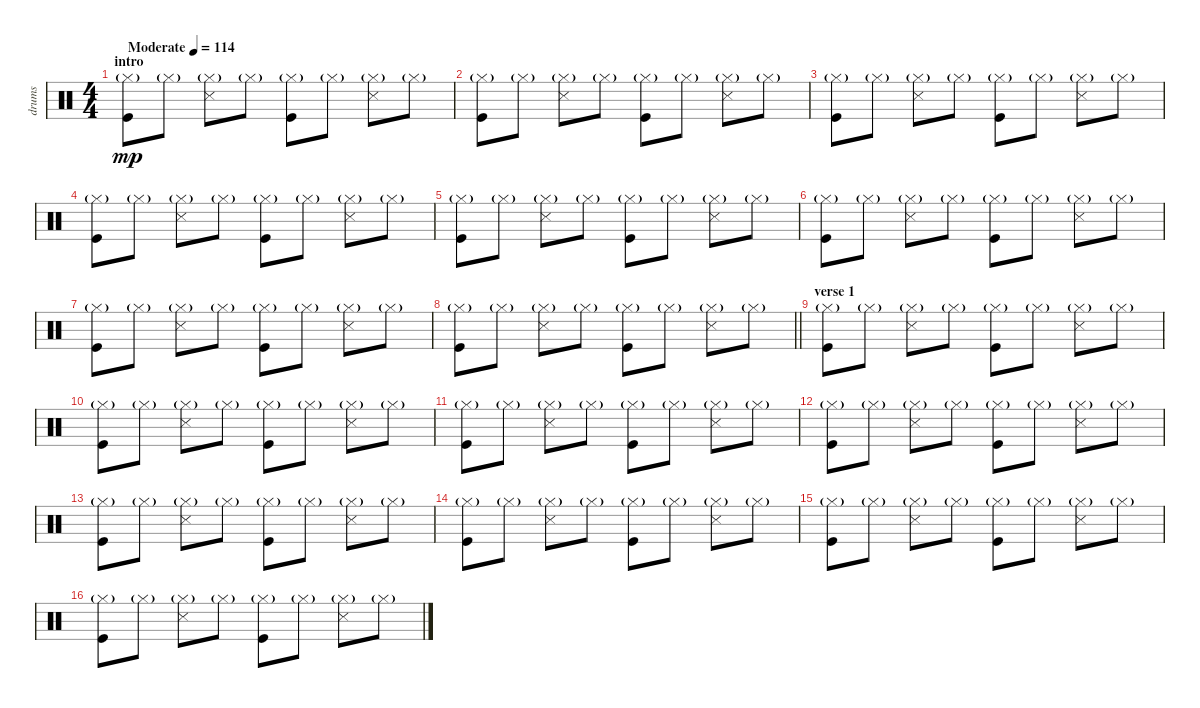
\track ("drums" "drums") {instrument percussion}
\staff {score}
\articulation defaults
\ts (4 4)
\section ("" "intro")
\tempo (114 "Moderate")
\clef neutral
\ks c
("Kick (hit)" "Hi-Hat (closed)"{g}).8{dy mp} "Hi-Hat (closed)"{g}.8 ("Snare (side stick) 3" "Hi-Hat (closed)"{g}).8 "Hi-Hat (closed)"{g}.8 ("Kick (hit)" "Hi-Hat (closed)"{g}).8 "Hi-Hat (closed)"{g}.8 ("Snare (side stick) 3" "Hi-Hat (closed)"{g}).8 "Hi-Hat (closed)"{g}.8 |
("Kick (hit)" "Hi-Hat (closed)"{g}).8 "Hi-Hat (closed)"{g}.8 ("Snare (side stick) 3" "Hi-Hat (closed)"{g}).8 "Hi-Hat (closed)"{g}.8 ("Kick (hit)" "Hi-Hat (closed)"{g}).8 "Hi-Hat (closed)"{g}.8 ("Snare (side stick) 3" "Hi-Hat (closed)"{g}).8 "Hi-Hat (closed)"{g}.8 |
("Kick (hit)" "Hi-Hat (closed)"{g}).8 "Hi-Hat (closed)"{g}.8 ("Snare (side stick) 3" "Hi-Hat (closed)"{g}).8 "Hi-Hat (closed)"{g}.8 ("Kick (hit)" "Hi-Hat (closed)"{g}).8 "Hi-Hat (closed)"{g}.8 ("Snare (side stick) 3" "Hi-Hat (closed)"{g}).8 "Hi-Hat (closed)"{g}.8 |
("Kick (hit)" "Hi-Hat (closed)"{g}).8 "Hi-Hat (closed)"{g}.8 ("Snare (side stick) 3" "Hi-Hat (closed)"{g}).8 "Hi-Hat (closed)"{g}.8 ("Kick (hit)" "Hi-Hat (closed)"{g}).8 "Hi-Hat (closed)"{g}.8 ("Snare (side stick) 3" "Hi-Hat (closed)"{g}).8 "Hi-Hat (closed)"{g}.8 |
("Kick (hit)" "Hi-Hat (closed)"{g}).8 "Hi-Hat (closed)"{g}.8 ("Snare (side stick) 3" "Hi-Hat (closed)"{g}).8 "Hi-Hat (closed)"{g}.8 ("Kick (hit)" "Hi-Hat (closed)"{g}).8 "Hi-Hat (closed)"{g}.8 ("Snare (side stick) 3" "Hi-Hat (closed)"{g}).8 "Hi-Hat (closed)"{g}.8 |
("Kick (hit)" "Hi-Hat (closed)"{g}).8 "Hi-Hat (closed)"{g}.8 ("Snare (side stick) 3" "Hi-Hat (closed)"{g}).8 "Hi-Hat (closed)"{g}.8 ("Kick (hit)" "Hi-Hat (closed)"{g}).8 "Hi-Hat (closed)"{g}.8 ("Snare (side stick) 3" "Hi-Hat (closed)"{g}).8 "Hi-Hat (closed)"{g}.8 |
("Kick (hit)" "Hi-Hat (closed)"{g}).8 "Hi-Hat (closed)"{g}.8 ("Snare (side stick) 3" "Hi-Hat (closed)"{g}).8 "Hi-Hat (closed)"{g}.8 ("Kick (hit)" "Hi-Hat (closed)"{g}).8 "Hi-Hat (closed)"{g}.8 ("Snare (side stick) 3" "Hi-Hat (closed)"{g}).8 "Hi-Hat (closed)"{g}.8 |
\barLineRight lightlight
("Kick (hit)" "Hi-Hat (closed)"{g}).8 "Hi-Hat (closed)"{g}.8 ("Snare (side stick) 3" "Hi-Hat (closed)"{g}).8 "Hi-Hat (closed)"{g}.8 ("Kick (hit)" "Hi-Hat (closed)"{g}).8 "Hi-Hat (closed)"{g}.8 ("Snare (side stick) 3" "Hi-Hat (closed)"{g}).8 "Hi-Hat (closed)"{g}.8 |
\section ("" "verse 1")
("Kick (hit)" "Hi-Hat (closed)"{g}).8 "Hi-Hat (closed)"{g}.8 ("Snare (side stick) 3" "Hi-Hat (closed)"{g}).8 "Hi-Hat (closed)"{g}.8 ("Kick (hit)" "Hi-Hat (closed)"{g}).8 "Hi-Hat (closed)"{g}.8 ("Snare (side stick) 3" "Hi-Hat (closed)"{g}).8 "Hi-Hat (closed)"{g}.8 |
("Kick (hit)" "Hi-Hat (closed)"{g}).8 "Hi-Hat (closed)"{g}.8 ("Snare (side stick) 3" "Hi-Hat (closed)"{g}).8 "Hi-Hat (closed)"{g}.8 ("Kick (hit)" "Hi-Hat (closed)"{g}).8 "Hi-Hat (closed)"{g}.8 ("Snare (side stick) 3" "Hi-Hat (closed)"{g}).8 "Hi-Hat (closed)"{g}.8 |
("Kick (hit)" "Hi-Hat (closed)"{g}).8 "Hi-Hat (closed)"{g}.8 ("Snare (side stick) 3" "Hi-Hat (closed)"{g}).8 "Hi-Hat (closed)"{g}.8 ("Kick (hit)" "Hi-Hat (closed)"{g}).8 "Hi-Hat (closed)"{g}.8 ("Snare (side stick) 3" "Hi-Hat (closed)"{g}).8 "Hi-Hat (closed)"{g}.8 |
("Kick (hit)" "Hi-Hat (closed)"{g}).8 "Hi-Hat (closed)"{g}.8 ("Snare (side stick) 3" "Hi-Hat (closed)"{g}).8 "Hi-Hat (closed)"{g}.8 ("Kick (hit)" "Hi-Hat (closed)"{g}).8 "Hi-Hat (closed)"{g}.8 ("Snare (side stick) 3" "Hi-Hat (closed)"{g}).8 "Hi-Hat (closed)"{g}.8 |
("Kick (hit)" "Hi-Hat (closed)"{g}).8 "Hi-Hat (closed)"{g}.8 ("Snare (side stick) 3" "Hi-Hat (closed)"{g}).8 "Hi-Hat (closed)"{g}.8 ("Kick (hit)" "Hi-Hat (closed)"{g}).8 "Hi-Hat (closed)"{g}.8 ("Snare (side stick) 3" "Hi-Hat (closed)"{g}).8 "Hi-Hat (closed)"{g}.8 |
("Kick (hit)" "Hi-Hat (closed)"{g}).8 "Hi-Hat (closed)"{g}.8 ("Snare (side stick) 3" "Hi-Hat (closed)"{g}).8 "Hi-Hat (closed)"{g}.8 ("Kick (hit)" "Hi-Hat (closed)"{g}).8 "Hi-Hat (closed)"{g}.8 ("Snare (side stick) 3" "Hi-Hat (closed)"{g}).8 "Hi-Hat (closed)"{g}.8 |
("Kick (hit)" "Hi-Hat (closed)"{g}).8 "Hi-Hat (closed)"{g}.8 ("Snare (side stick) 3" "Hi-Hat (closed)"{g}).8 "Hi-Hat (closed)"{g}.8 ("Kick (hit)" "Hi-Hat (closed)"{g}).8 "Hi-Hat (closed)"{g}.8 ("Snare (side stick) 3" "Hi-Hat (closed)"{g}).8 "Hi-Hat (closed)"{g}.8 |
("Kick (hit)" "Hi-Hat (closed)"{g}).8 "Hi-Hat (closed)"{g}.8 ("Snare (side stick) 3" "Hi-Hat (closed)"{g}).8 "Hi-Hat (closed)"{g}.8 ("Kick (hit)" "Hi-Hat (closed)"{g}).8 "Hi-Hat (closed)"{g}.8 ("Snare (side stick) 3" "Hi-Hat (closed)"{g}).8 "Hi-Hat (closed)"{g}.8
